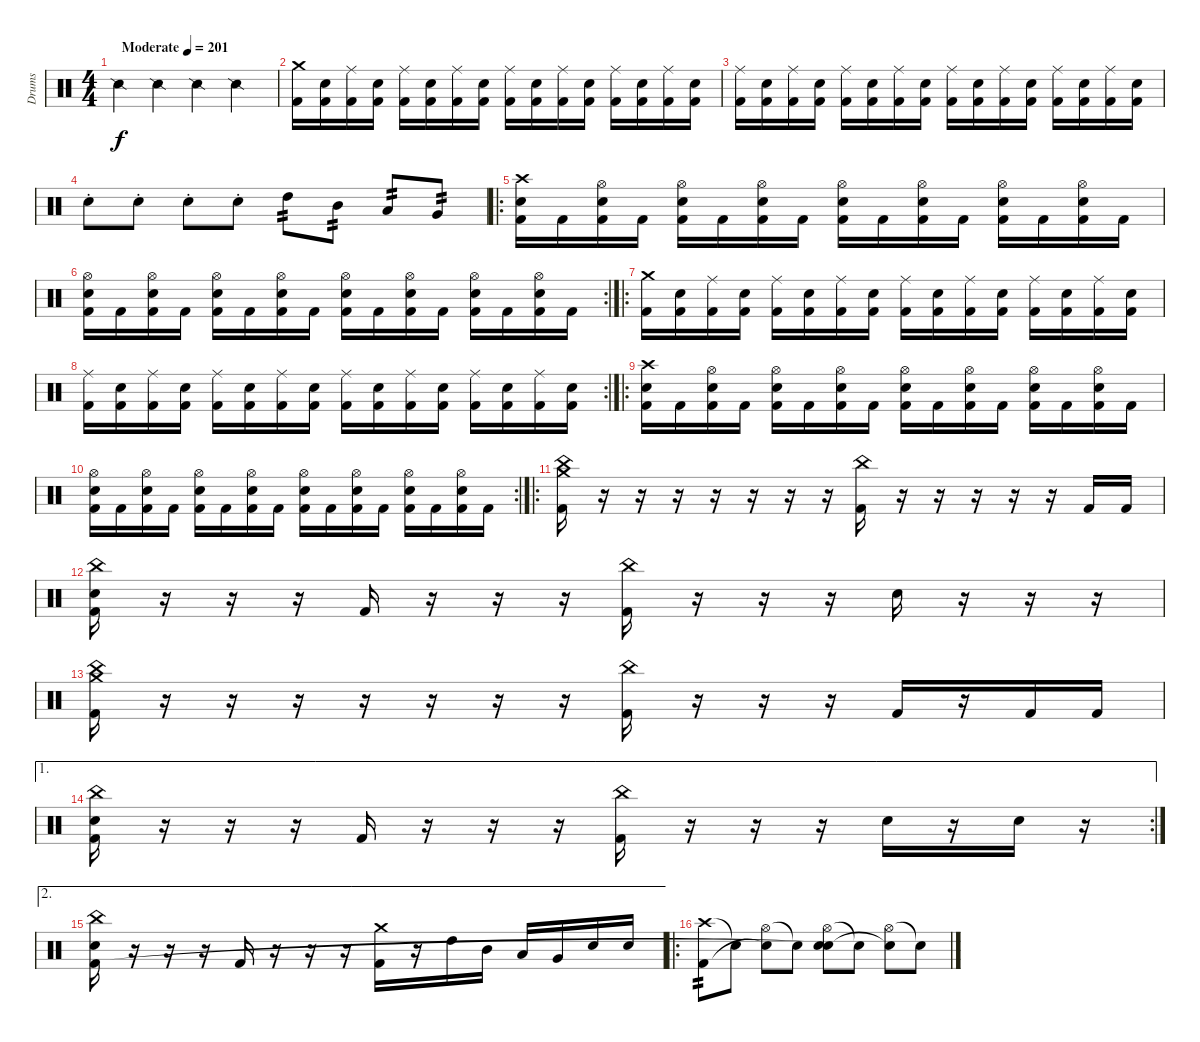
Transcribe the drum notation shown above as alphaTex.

\track ("Drums" "Drums") {instrument percussion}
\staff {score}
\articulation defaults
\ts (4 4)
\tempo (201 "Moderate")
\clef neutral
\ks c "Snare (side stick) 2".4{dy f} "Snare (side stick) 2".4 "Snare (side stick) 2".4 "Snare (side stick) 2".4
|
("Crash medium (hit)" "Kick (hit) 2").16 ("Electric Snare (hit)" "Kick (hit) 2").16 ("Ride (middle)" "Kick (hit) 2").16 ("Electric Snare (hit)" "Kick (hit) 2").16 ("Ride (middle)" "Kick (hit) 2").16 ("Electric Snare (hit)" "Kick (hit) 2").16 ("Ride (middle)" "Kick (hit) 2").16 ("Electric Snare (hit)" "Kick (hit) 2").16 ("Ride (middle)" "Kick (hit) 2").16 ("Electric Snare (hit)" "Kick (hit) 2").16 ("Ride (middle)" "Kick (hit) 2").16 ("Electric Snare (hit)" "Kick (hit) 2").16 ("Ride (middle)" "Kick (hit) 2").16 ("Electric Snare (hit)" "Kick (hit) 2").16 ("Ride (middle)" "Kick (hit) 2").16 ("Electric Snare (hit)" "Kick (hit) 2").16 |
("Ride (middle)" "Kick (hit) 2").16 ("Electric Snare (hit)" "Kick (hit) 2").16 ("Ride (middle)" "Kick (hit) 2").16 ("Electric Snare (hit)" "Kick (hit) 2").16 ("Ride (middle)" "Kick (hit) 2").16 ("Electric Snare (hit)" "Kick (hit) 2").16 ("Ride (middle)" "Kick (hit) 2").16 ("Electric Snare (hit)" "Kick (hit) 2").16 ("Ride (middle)" "Kick (hit) 2").16 ("Electric Snare (hit)" "Kick (hit) 2").16 ("Ride (middle)" "Kick (hit) 2").16 ("Electric Snare (hit)" "Kick (hit) 2").16 ("Ride (middle)" "Kick (hit) 2").16 ("Electric Snare (hit)" "Kick (hit) 2").16 ("Ride (middle)" "Kick (hit) 2").16 ("Electric Snare (hit)" "Kick (hit) 2").16 |
"Electric Snare (hit)"{st}.8 "Electric Snare (hit)"{st}.8 "Electric Snare (hit)"{st}.8 "Electric Snare (hit)"{st}.8 "High Tom (hit)".8{tp 2} "Mid Tom (hit)".8{tp 2} "Low Tom (hit)".8{tp 2} "Very Low Tom (hit)".8{tp 2} |
\ro
("Crash high (hit)" "Electric Snare (hit)" "Kick (hit) 2").16 "Kick (hit) 2".16 ("Hi-Hat (open)" "Electric Snare (hit)" "Kick (hit) 2").16 "Kick (hit) 2".16 ("Hi-Hat (open)" "Electric Snare (hit)" "Kick (hit) 2").16 "Kick (hit) 2".16 ("Hi-Hat (open)" "Electric Snare (hit)" "Kick (hit) 2").16 "Kick (hit) 2".16 ("Hi-Hat (open)" "Electric Snare (hit)" "Kick (hit) 2").16 "Kick (hit) 2".16 ("Hi-Hat (open)" "Electric Snare (hit)" "Kick (hit) 2").16 "Kick (hit) 2".16 ("Hi-Hat (open)" "Electric Snare (hit)" "Kick (hit) 2").16 "Kick (hit) 2".16 ("Hi-Hat (open)" "Electric Snare (hit)" "Kick (hit) 2").16 "Kick (hit) 2".16 |
\rc 2
("Hi-Hat (open)" "Electric Snare (hit)" "Kick (hit) 2").16 "Kick (hit) 2".16 ("Hi-Hat (open)" "Electric Snare (hit)" "Kick (hit) 2").16 "Kick (hit) 2".16 ("Hi-Hat (open)" "Electric Snare (hit)" "Kick (hit) 2").16 "Kick (hit) 2".16 ("Hi-Hat (open)" "Electric Snare (hit)" "Kick (hit) 2").16 "Kick (hit) 2".16 ("Hi-Hat (open)" "Electric Snare (hit)" "Kick (hit) 2").16 "Kick (hit) 2".16 ("Hi-Hat (open)" "Electric Snare (hit)" "Kick (hit) 2").16 "Kick (hit) 2".16 ("Hi-Hat (open)" "Electric Snare (hit)" "Kick (hit) 2").16 "Kick (hit) 2".16 ("Hi-Hat (open)" "Electric Snare (hit)" "Kick (hit) 2").16 "Kick (hit) 2".16 |
\ro
("Crash medium (hit)" "Kick (hit) 2").16 ("Electric Snare (hit)" "Kick (hit) 2").16 ("Ride (middle)" "Kick (hit) 2").16 ("Electric Snare (hit)" "Kick (hit) 2").16 ("Ride (middle)" "Kick (hit) 2").16 ("Electric Snare (hit)" "Kick (hit) 2").16 ("Ride (middle)" "Kick (hit) 2").16 ("Electric Snare (hit)" "Kick (hit) 2").16 ("Ride (middle)" "Kick (hit) 2").16 ("Electric Snare (hit)" "Kick (hit) 2").16 ("Ride (middle)" "Kick (hit) 2").16 ("Electric Snare (hit)" "Kick (hit) 2").16 ("Ride (middle)" "Kick (hit) 2").16 ("Electric Snare (hit)" "Kick (hit) 2").16 ("Ride (middle)" "Kick (hit) 2").16 ("Electric Snare (hit)" "Kick (hit) 2").16 |
\rc 2
("Ride (middle)" "Kick (hit) 2").16 ("Electric Snare (hit)" "Kick (hit) 2").16 ("Ride (middle)" "Kick (hit) 2").16 ("Electric Snare (hit)" "Kick (hit) 2").16 ("Ride (middle)" "Kick (hit) 2").16 ("Electric Snare (hit)" "Kick (hit) 2").16 ("Ride (middle)" "Kick (hit) 2").16 ("Electric Snare (hit)" "Kick (hit) 2").16 ("Ride (middle)" "Kick (hit) 2").16 ("Electric Snare (hit)" "Kick (hit) 2").16 ("Ride (middle)" "Kick (hit) 2").16 ("Electric Snare (hit)" "Kick (hit) 2").16 ("Ride (middle)" "Kick (hit) 2").16 ("Electric Snare (hit)" "Kick (hit) 2").16 ("Ride (middle)" "Kick (hit) 2").16 ("Electric Snare (hit)" "Kick (hit) 2").16 |
\ro
("Crash high (hit)" "Electric Snare (hit)" "Kick (hit) 2").16 "Kick (hit) 2".16 ("Hi-Hat (open)" "Electric Snare (hit)" "Kick (hit) 2").16 "Kick (hit) 2".16 ("Hi-Hat (open)" "Electric Snare (hit)" "Kick (hit) 2").16 "Kick (hit) 2".16 ("Hi-Hat (open)" "Electric Snare (hit)" "Kick (hit) 2").16 "Kick (hit) 2".16 ("Hi-Hat (open)" "Electric Snare (hit)" "Kick (hit) 2").16 "Kick (hit) 2".16 ("Hi-Hat (open)" "Electric Snare (hit)" "Kick (hit) 2").16 "Kick (hit) 2".16 ("Hi-Hat (open)" "Electric Snare (hit)" "Kick (hit) 2").16 "Kick (hit) 2".16 ("Hi-Hat (open)" "Electric Snare (hit)" "Kick (hit) 2").16 "Kick (hit) 2".16 |
\rc 2
("Hi-Hat (open)" "Electric Snare (hit)" "Kick (hit) 2").16 "Kick (hit) 2".16 ("Hi-Hat (open)" "Electric Snare (hit)" "Kick (hit) 2").16 "Kick (hit) 2".16 ("Hi-Hat (open)" "Electric Snare (hit)" "Kick (hit) 2").16 "Kick (hit) 2".16 ("Hi-Hat (open)" "Electric Snare (hit)" "Kick (hit) 2").16 "Kick (hit) 2".16 ("Hi-Hat (open)" "Electric Snare (hit)" "Kick (hit) 2").16 "Kick (hit) 2".16 ("Hi-Hat (open)" "Electric Snare (hit)" "Kick (hit) 2").16 "Kick (hit) 2".16 ("Hi-Hat (open)" "Electric Snare (hit)" "Kick (hit) 2").16 "Kick (hit) 2".16 ("Hi-Hat (open)" "Electric Snare (hit)" "Kick (hit) 2").16 "Kick (hit) 2".16 |
\ro
("China (hit)" "Crash medium (hit)" "Kick (hit) 2").16 r.16 r.16 r.16 r.16 r.16 r.16 r.16 ("China (hit)" "Kick (hit) 2").16 r.16 r.16 r.16 r.16 r.16 "Kick (hit) 2".16 "Kick (hit) 2".16 |
("China (hit)" "Electric Snare (hit)" "Kick (hit) 2").16 r.16 r.16 r.16 "Kick (hit) 2".16 r.16 r.16 r.16 ("China (hit)" "Kick (hit) 2").16 r.16 r.16 r.16 "Electric Snare (hit)".16 r.16 r.16 r.16 |
("China (hit)" "Crash medium (hit)" "Kick (hit) 2").16 r.16 r.16 r.16 r.16 r.16 r.16 r.16 ("China (hit)" "Kick (hit) 2").16 r.16 r.16 r.16 "Kick (hit) 2".16 r.16 "Kick (hit) 2".16 "Kick (hit) 2".16 |
\ae 1
\rc 2
("China (hit)" "Electric Snare (hit)" "Kick (hit) 2").16 r.16 r.16 r.16 "Kick (hit) 2".16 r.16 r.16 r.16 ("China (hit)" "Kick (hit) 2").16 r.16 r.16 r.16 "Electric Snare (hit)".16 r.16 "Electric Snare (hit)".16 r.16 |
\ae 2
("China (hit)" "Electric Snare (hit)" "Kick (hit) 2").16 r.16 r.16 r.16 "Kick (hit) 2".16 r.16 r.16 r.16 ("Crash medium (hit)" "Kick (hit) 2").16 r.16 "High Tom (hit)".16 "Mid Tom (hit)".16 "Low Tom (hit)".16 "Very Low Tom (hit)".16 "Electric Snare (hit)".16 "Electric Snare (hit)".16 |
\ro
("Crash high (hit)" "Kick (hit) 2").8{tp 2} "Snare (hit)"{t}.8 ("Hi-Hat (open)" "Snare (hit)"{t}).8 "Snare (hit)"{t}.8 ("Hi-Hat (open)" "Electric Snare (hit)" "Snare (hit)"{t}).8 "Snare (hit)"{t}.8 ("Hi-Hat (open)" "Snare (hit)"{t}).8 "Snare (hit)"{t}.8
